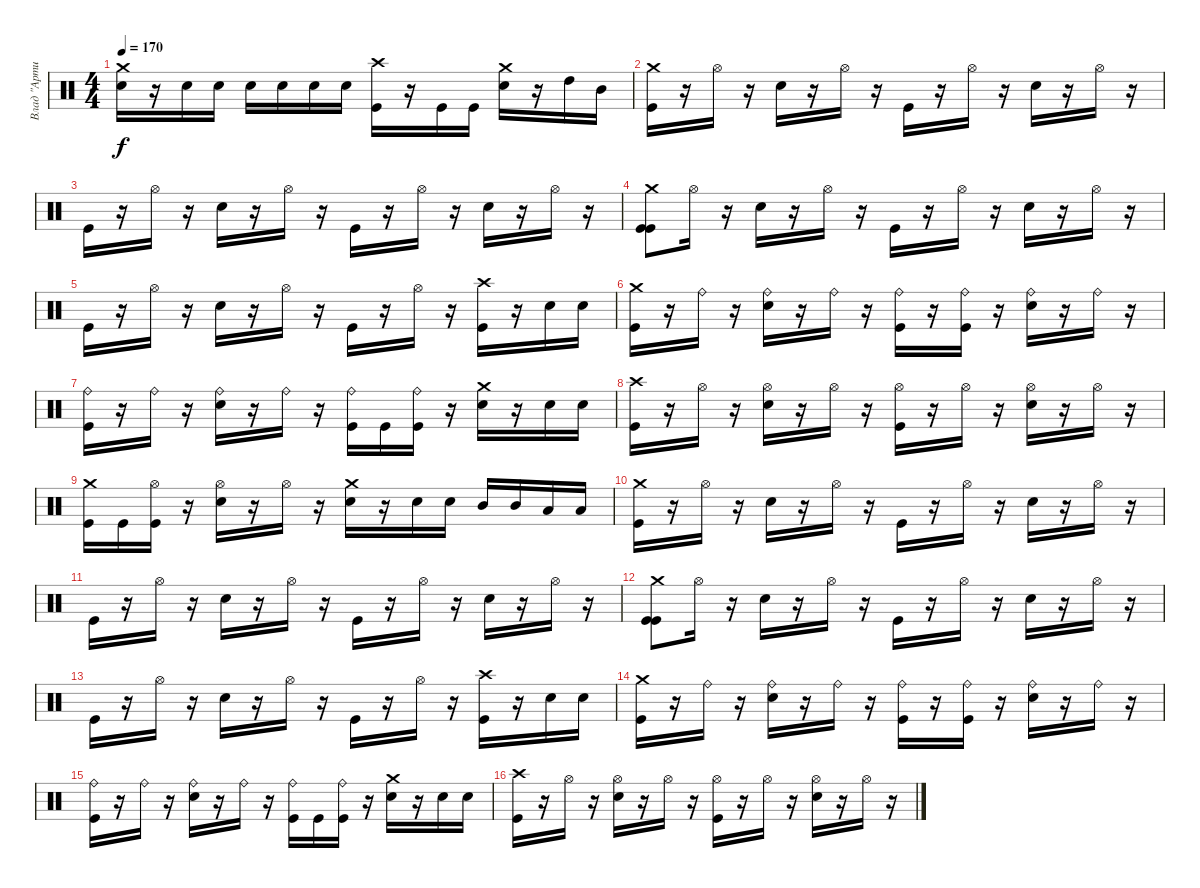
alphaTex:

\track ("Влад \"Артист\"" "Влад \"Арти") {instrument percussion}
\staff {score}
\articulation defaults
\ts (4 4)
\tempo 170
\clef neutral
\ks c
("Snare (hit) 2" "Crash medium (hit)").16{dy f} r.16 "Snare (hit) 2".16 "Snare (hit) 2".16 "Snare (hit) 2".16 "Snare (hit) 2".16 "Snare (hit) 2".16 "Snare (hit) 2".16 ("Kick (hit)" "Crash high (hit)").16 r.16 "Kick (hit)".16 "Kick (hit)".16 ("Crash medium (hit)" "Snare (hit) 2").16 r.16 "High Tom (hit)".16 "Mid Tom (hit)".16 |
("Crash medium (hit)" "Kick (hit)").16 r.16 "Hi-Hat (open)".16 r.16 "Snare (hit) 2".16 r.16 "Hi-Hat (open)".16 r.16 "Kick (hit)".16 r.16 "Hi-Hat (open)".16 r.16 "Snare (hit) 2".16 r.16 "Hi-Hat (open)".16 r.16 |
"Kick (hit)".16 r.16 "Hi-Hat (open)".16 r.16 "Snare (hit) 2".16 r.16 "Hi-Hat (open)".16 r.16 "Kick (hit)".16 r.16 "Hi-Hat (open)".16 r.16 "Snare (hit) 2".16 r.16 "Hi-Hat (open)".16 r.16 |
("Kick (hit)" "Crash medium (hit)" "Kick (hit)").8 "Hi-Hat (open)".16 r.16 "Snare (hit) 2".16 r.16 "Hi-Hat (open)".16 r.16 "Kick (hit)".16 r.16 "Hi-Hat (open)".16 r.16 "Snare (hit) 2".16 r.16 "Hi-Hat (open)".16 r.16 |
"Kick (hit)".16 r.16 "Hi-Hat (open)".16 r.16 "Snare (hit) 2".16 r.16 "Hi-Hat (open)".16 r.16 "Kick (hit)".16 r.16 "Hi-Hat (open)".16 r.16 ("Kick (hit)" "Crash high (hit)").16 r.16 "Snare (hit) 2".16 "Snare (hit) 2".16 |
("Crash medium (hit)" "Kick (hit)").16 r.16 "Ride (bell)".16 r.16 ("Snare (hit) 2" "Ride (bell)").16 r.16 "Ride (bell)".16 r.16 ("Kick (hit)" "Ride (bell)").16 r.16 ("Kick (hit)" "Ride (bell)").16 r.16 ("Snare (hit) 2" "Ride (bell)").16 r.16 "Ride (bell)".16 r.16 |
("Kick (hit)" "Ride (bell)").16 r.16 "Ride (bell)".16 r.16 ("Snare (hit) 2" "Ride (bell)").16 r.16 "Ride (bell)".16 r.16 ("Kick (hit)" "Ride (bell)").16 "Kick (hit)".16 ("Kick (hit)" "Ride (bell)").16 r.16 ("Snare (hit) 2" "Crash medium (hit)").16 r.16 "Snare (hit) 2".16 "Snare (hit) 2".16 |
("Kick (hit)" "Crash high (hit)").16 r.16 "Hi-Hat (open)".16 r.16 ("Hi-Hat (open)" "Snare (hit) 2").16 r.16 "Hi-Hat (open)".16 r.16 ("Hi-Hat (open)" "Kick (hit)").16 r.16 "Hi-Hat (open)".16 r.16 ("Hi-Hat (open)" "Snare (hit) 2").16 r.16 "Hi-Hat (open)".16 r.16 |
("Crash medium (hit)" "Kick (hit)").16 "Kick (hit)".16 ("Hi-Hat (open)" "Kick (hit)").16 r.16 ("Hi-Hat (open)" "Snare (hit) 2").16 r.16 "Hi-Hat (open)".16 r.16 ("Snare (hit) 2" "Crash medium (hit)").16 r.16 "Snare (hit) 2".16 "Snare (hit) 2".16 "Mid Tom (hit)".16 "Mid Tom (hit)".16 "Low Tom (hit)".16 "Low Tom (hit)".16 |
("Crash medium (hit)" "Kick (hit)").16 r.16 "Hi-Hat (open)".16 r.16 "Snare (hit) 2".16 r.16 "Hi-Hat (open)".16 r.16 "Kick (hit)".16 r.16 "Hi-Hat (open)".16 r.16 "Snare (hit) 2".16 r.16 "Hi-Hat (open)".16 r.16 |
"Kick (hit)".16 r.16 "Hi-Hat (open)".16 r.16 "Snare (hit) 2".16 r.16 "Hi-Hat (open)".16 r.16 "Kick (hit)".16 r.16 "Hi-Hat (open)".16 r.16 "Snare (hit) 2".16 r.16 "Hi-Hat (open)".16 r.16 |
("Kick (hit)" "Crash medium (hit)" "Kick (hit)").8 "Hi-Hat (open)".16 r.16 "Snare (hit) 2".16 r.16 "Hi-Hat (open)".16 r.16 "Kick (hit)".16 r.16 "Hi-Hat (open)".16 r.16 "Snare (hit) 2".16 r.16 "Hi-Hat (open)".16 r.16 |
"Kick (hit)".16 r.16 "Hi-Hat (open)".16 r.16 "Snare (hit) 2".16 r.16 "Hi-Hat (open)".16 r.16 "Kick (hit)".16 r.16 "Hi-Hat (open)".16 r.16 ("Kick (hit)" "Crash high (hit)").16 r.16 "Snare (hit) 2".16 "Snare (hit) 2".16 |
("Crash medium (hit)" "Kick (hit)").16 r.16 "Ride (bell)".16 r.16 ("Snare (hit) 2" "Ride (bell)").16 r.16 "Ride (bell)".16 r.16 ("Kick (hit)" "Ride (bell)").16 r.16 ("Kick (hit)" "Ride (bell)").16 r.16 ("Snare (hit) 2" "Ride (bell)").16 r.16 "Ride (bell)".16 r.16 |
("Kick (hit)" "Ride (bell)").16 r.16 "Ride (bell)".16 r.16 ("Snare (hit) 2" "Ride (bell)").16 r.16 "Ride (bell)".16 r.16 ("Kick (hit)" "Ride (bell)").16 "Kick (hit)".16 ("Kick (hit)" "Ride (bell)").16 r.16 ("Snare (hit) 2" "Crash medium (hit)").16 r.16 "Snare (hit) 2".16 "Snare (hit) 2".16 |
("Kick (hit)" "Crash high (hit)").16 r.16 "Hi-Hat (open)".16 r.16 ("Hi-Hat (open)" "Snare (hit) 2").16 r.16 "Hi-Hat (open)".16 r.16 ("Hi-Hat (open)" "Kick (hit)").16 r.16 "Hi-Hat (open)".16 r.16 ("Hi-Hat (open)" "Snare (hit) 2").16 r.16 "Hi-Hat (open)".16 r.16
